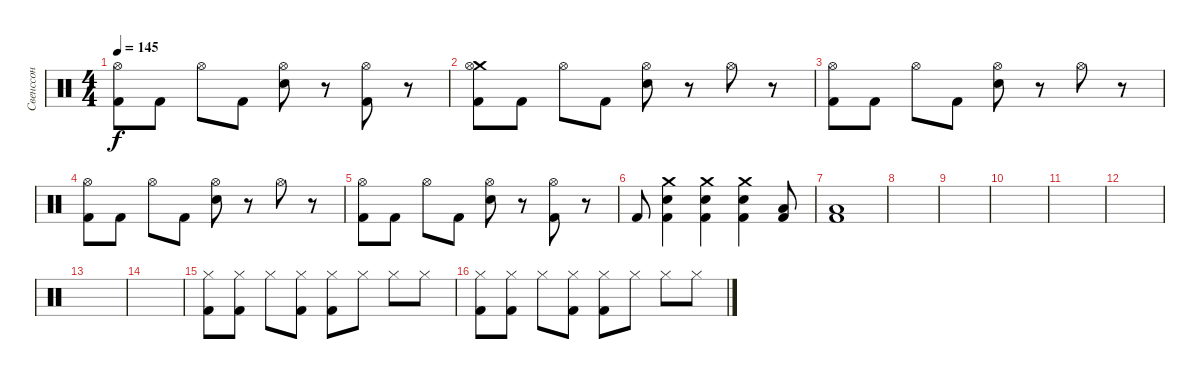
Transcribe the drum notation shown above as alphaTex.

\track ("Свенссон" "Свенссон") {instrument percussion}
\staff {score}
\articulation defaults
\ts (4 4)
\tempo 145
\clef neutral
\ks c
("Hi-Hat (open)" "Kick (hit) 2").8{dy f} "Kick (hit) 2".8 "Hi-Hat (open)".8 "Kick (hit) 2".8 ("Hi-Hat (open)" "Snare (hit) 2").8 r.8 ("Hi-Hat (open)" "Kick (hit) 2").8 r.8 |
("Crash medium (hit)" "Hi-Hat (open)" "Kick (hit) 2").8 "Kick (hit) 2".8 "Hi-Hat (open)".8 "Kick (hit) 2".8 ("Hi-Hat (open)" "Snare (hit) 2").8 r.8 "Hi-Hat (open)".8 r.8 |
("Hi-Hat (open)" "Kick (hit) 2").8 "Kick (hit) 2".8 "Hi-Hat (open)".8 "Kick (hit) 2".8 ("Hi-Hat (open)" "Snare (hit) 2").8 r.8 "Hi-Hat (open)".8 r.8 |
("Hi-Hat (open)" "Kick (hit) 2").8 "Kick (hit) 2".8 "Hi-Hat (open)".8 "Kick (hit) 2".8 ("Hi-Hat (open)" "Snare (hit) 2").8 r.8 "Hi-Hat (open)".8 r.8 |
("Hi-Hat (open)" "Kick (hit) 2").8 "Kick (hit) 2".8 "Hi-Hat (open)".8 "Kick (hit) 2".8 ("Hi-Hat (open)" "Snare (hit) 2").8 r.8 ("Hi-Hat (open)" "Kick (hit) 2").8 r.8 |
"Kick (hit) 2".8 ("Crash medium (hit)" "Snare (hit) 2" "Kick (hit) 2").4 ("Crash medium (hit)" "Snare (hit) 2" "Kick (hit) 2").4 ("Crash medium (hit)" "Snare (hit) 2" "Kick (hit) 2").4 ("Low Floor Tom (hit)" "Kick (hit) 2").8 |
("Low Floor Tom (hit)" "Kick (hit) 2").1 |
|
|
|
|
|
|
|
("Hi-Hat (closed)" "Kick (hit) 2").8 ("Hi-Hat (closed)" "Kick (hit) 2").8 "Hi-Hat (closed)".8 ("Hi-Hat (closed)" "Kick (hit) 2").8 ("Hi-Hat (closed)" "Kick (hit) 2").8 "Hi-Hat (closed)".8 "Hi-Hat (closed)".8 "Hi-Hat (closed)".8 |
("Hi-Hat (closed)" "Kick (hit) 2").8 ("Hi-Hat (closed)" "Kick (hit) 2").8 "Hi-Hat (closed)".8 ("Hi-Hat (closed)" "Kick (hit) 2").8 ("Hi-Hat (closed)" "Kick (hit) 2").8 "Hi-Hat (closed)".8 "Hi-Hat (closed)".8 "Hi-Hat (closed)".8
